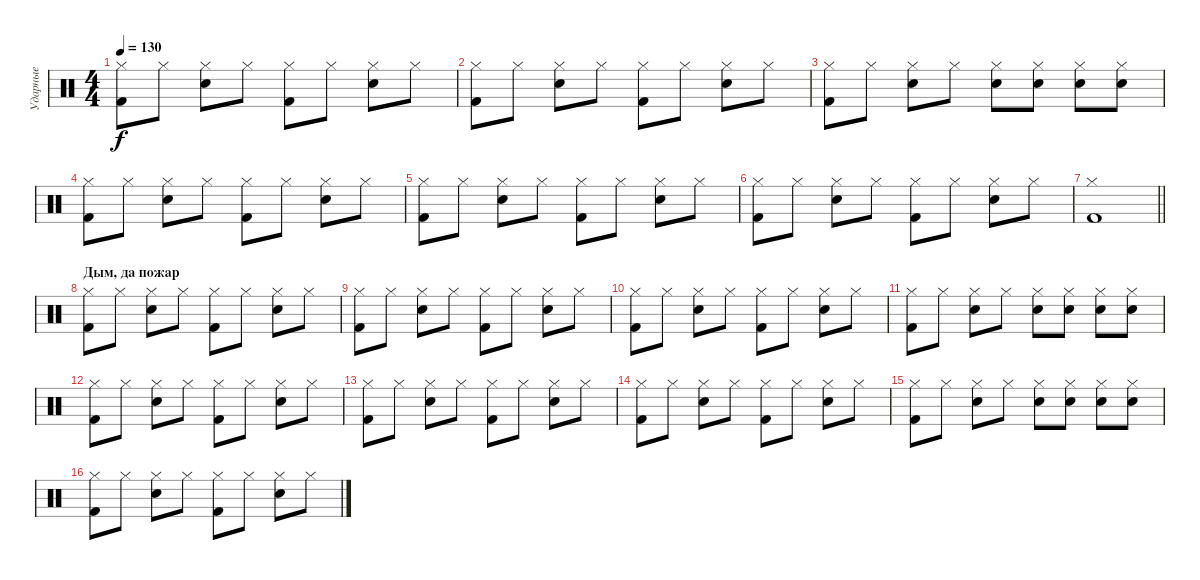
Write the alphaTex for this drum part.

\track ("Ударные" "Ударные") {instrument percussion}
\staff {score}
\articulation defaults
\ts (4 4)
\tempo 130
\clef neutral
\ks c
("Hi-Hat (closed)" "Kick (hit) 2").8{dy f} "Hi-Hat (closed)".8 ("Hi-Hat (closed)" "Snare (hit) 2").8 "Hi-Hat (closed)".8 ("Hi-Hat (closed)" "Kick (hit) 2").8 "Hi-Hat (closed)".8 ("Hi-Hat (closed)" "Snare (hit) 2").8 "Hi-Hat (closed)".8 |
("Hi-Hat (closed)" "Kick (hit) 2").8 "Hi-Hat (closed)".8 ("Hi-Hat (closed)" "Snare (hit) 2").8 "Hi-Hat (closed)".8 ("Hi-Hat (closed)" "Kick (hit) 2").8 "Hi-Hat (closed)".8 ("Hi-Hat (closed)" "Snare (hit) 2").8 "Hi-Hat (closed)".8 |
("Hi-Hat (closed)" "Kick (hit) 2").8 "Hi-Hat (closed)".8 ("Hi-Hat (closed)" "Snare (hit) 2").8 "Hi-Hat (closed)".8 ("Hi-Hat (closed)" "Snare (hit) 2").8 ("Hi-Hat (closed)" "Snare (hit) 2").8 ("Hi-Hat (closed)" "Snare (hit) 2").8 ("Hi-Hat (closed)" "Snare (hit) 2").8 |
("Hi-Hat (closed)" "Kick (hit) 2").8 "Hi-Hat (closed)".8 ("Hi-Hat (closed)" "Snare (hit) 2").8 "Hi-Hat (closed)".8 ("Hi-Hat (closed)" "Kick (hit) 2").8 "Hi-Hat (closed)".8 ("Hi-Hat (closed)" "Snare (hit) 2").8 "Hi-Hat (closed)".8 |
("Hi-Hat (closed)" "Kick (hit) 2").8 "Hi-Hat (closed)".8 ("Hi-Hat (closed)" "Snare (hit) 2").8 "Hi-Hat (closed)".8 ("Hi-Hat (closed)" "Kick (hit) 2").8 "Hi-Hat (closed)".8 ("Hi-Hat (closed)" "Snare (hit) 2").8 "Hi-Hat (closed)".8 |
("Hi-Hat (closed)" "Kick (hit) 2").8 "Hi-Hat (closed)".8 ("Hi-Hat (closed)" "Snare (hit) 2").8 "Hi-Hat (closed)".8 ("Hi-Hat (closed)" "Kick (hit) 2").8 "Hi-Hat (closed)".8 ("Hi-Hat (closed)" "Snare (hit) 2").8 "Hi-Hat (closed)".8 |
\barLineRight lightlight
("Hi-Hat (closed)" "Kick (hit) 2").1 |
\section ("" "Дым, да пожар")
("Hi-Hat (closed)" "Kick (hit) 2").8 "Hi-Hat (closed)".8 ("Hi-Hat (closed)" "Snare (hit) 2").8 "Hi-Hat (closed)".8 ("Hi-Hat (closed)" "Kick (hit) 2").8 "Hi-Hat (closed)".8 ("Hi-Hat (closed)" "Snare (hit) 2").8 "Hi-Hat (closed)".8 |
("Hi-Hat (closed)" "Kick (hit) 2").8 "Hi-Hat (closed)".8 ("Hi-Hat (closed)" "Snare (hit) 2").8 "Hi-Hat (closed)".8 ("Hi-Hat (closed)" "Kick (hit) 2").8 "Hi-Hat (closed)".8 ("Hi-Hat (closed)" "Snare (hit) 2").8 "Hi-Hat (closed)".8 |
("Hi-Hat (closed)" "Kick (hit) 2").8 "Hi-Hat (closed)".8 ("Hi-Hat (closed)" "Snare (hit) 2").8 "Hi-Hat (closed)".8 ("Hi-Hat (closed)" "Kick (hit) 2").8 "Hi-Hat (closed)".8 ("Hi-Hat (closed)" "Snare (hit) 2").8 "Hi-Hat (closed)".8 |
("Hi-Hat (closed)" "Kick (hit) 2").8 "Hi-Hat (closed)".8 ("Hi-Hat (closed)" "Snare (hit) 2").8 "Hi-Hat (closed)".8 ("Hi-Hat (closed)" "Snare (hit) 2").8 ("Hi-Hat (closed)" "Snare (hit) 2").8 ("Hi-Hat (closed)" "Snare (hit) 2").8 ("Hi-Hat (closed)" "Snare (hit) 2").8 |
("Hi-Hat (closed)" "Kick (hit) 2").8 "Hi-Hat (closed)".8 ("Hi-Hat (closed)" "Snare (hit) 2").8 "Hi-Hat (closed)".8 ("Hi-Hat (closed)" "Kick (hit) 2").8 "Hi-Hat (closed)".8 ("Hi-Hat (closed)" "Snare (hit) 2").8 "Hi-Hat (closed)".8 |
("Hi-Hat (closed)" "Kick (hit) 2").8 "Hi-Hat (closed)".8 ("Hi-Hat (closed)" "Snare (hit) 2").8 "Hi-Hat (closed)".8 ("Hi-Hat (closed)" "Kick (hit) 2").8 "Hi-Hat (closed)".8 ("Hi-Hat (closed)" "Snare (hit) 2").8 "Hi-Hat (closed)".8 |
("Hi-Hat (closed)" "Kick (hit) 2").8 "Hi-Hat (closed)".8 ("Hi-Hat (closed)" "Snare (hit) 2").8 "Hi-Hat (closed)".8 ("Hi-Hat (closed)" "Kick (hit) 2").8 "Hi-Hat (closed)".8 ("Hi-Hat (closed)" "Snare (hit) 2").8 "Hi-Hat (closed)".8 |
("Hi-Hat (closed)" "Kick (hit) 2").8 "Hi-Hat (closed)".8 ("Hi-Hat (closed)" "Snare (hit) 2").8 "Hi-Hat (closed)".8 ("Hi-Hat (closed)" "Snare (hit) 2").8 ("Hi-Hat (closed)" "Snare (hit) 2").8 ("Hi-Hat (closed)" "Snare (hit) 2").8 ("Hi-Hat (closed)" "Snare (hit) 2").8 |
("Hi-Hat (closed)" "Kick (hit) 2").8 "Hi-Hat (closed)".8 ("Hi-Hat (closed)" "Snare (hit) 2").8 "Hi-Hat (closed)".8 ("Hi-Hat (closed)" "Kick (hit) 2").8 "Hi-Hat (closed)".8 ("Hi-Hat (closed)" "Snare (hit) 2").8 "Hi-Hat (closed)".8
